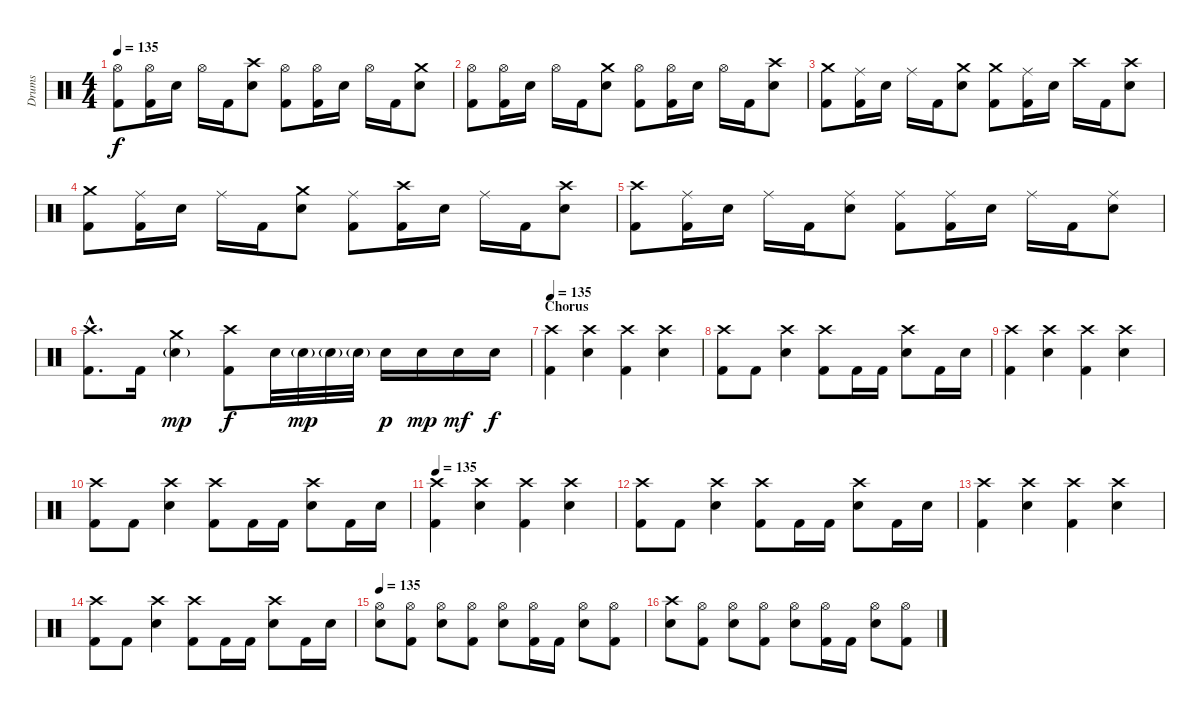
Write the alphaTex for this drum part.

\track ("Drums" "Drums") {instrument percussion}
\staff {score}
\articulation defaults
\ts (4 4)
\tempo 135
\clef neutral
\ks c
("Hi-Hat (open)" "Kick (hit) 2").8{dy f} ("Hi-Hat (open)" "Kick (hit) 2").16 "Electric Snare (hit)".16 "Hi-Hat (open)".16 "Kick (hit) 2".16 ("Crash high (hit)" "Electric Snare (hit)").8 ("Hi-Hat (open)" "Kick (hit) 2").8 ("Hi-Hat (open)" "Kick (hit) 2").16 "Electric Snare (hit)".16 "Hi-Hat (open)".16 "Kick (hit) 2".16 ("Crash medium (hit)" "Electric Snare (hit)").8 |
("Hi-Hat (open)" "Kick (hit) 2").8 ("Hi-Hat (open)" "Kick (hit) 2").16 "Electric Snare (hit)".16 "Hi-Hat (open)".16 "Kick (hit) 2".16 ("Crash medium (hit)" "Electric Snare (hit)").8 ("Hi-Hat (open)" "Kick (hit) 2").8 ("Hi-Hat (open)" "Kick (hit) 2").16 "Electric Snare (hit)".16 "Hi-Hat (open)".16 "Kick (hit) 2".16 ("Crash high (hit)" "Electric Snare (hit)").8 |
("Crash medium (hit)" "Kick (hit) 2").8 ("Ride (middle)" "Kick (hit) 2").16 "Electric Snare (hit)".16 "Ride (middle)".16 "Kick (hit) 2".16 ("Crash medium (hit)" "Electric Snare (hit)").8 ("Crash medium (hit)" "Kick (hit) 2").8 ("Ride (middle)" "Kick (hit) 2").16 "Electric Snare (hit)".16 "Crash high (hit)".16 "Kick (hit) 2".16 ("Crash high (hit)" "Electric Snare (hit)").8 |
("Crash medium (hit)" "Kick (hit) 2").8 ("Ride (middle)" "Kick (hit) 2").16 "Electric Snare (hit)".16 "Ride (middle)".16 "Kick (hit) 2".16 ("Crash medium (hit)" "Electric Snare (hit)").8 ("Ride (middle)" "Kick (hit) 2").8 ("Crash high (hit)" "Kick (hit) 2").16 "Electric Snare (hit)".16 "Ride (middle)".16 "Kick (hit) 2".16 ("Crash high (hit)" "Electric Snare (hit)").8 |
("Crash high (hit)" "Kick (hit) 2").8 ("Ride (middle)" "Kick (hit) 2").16 "Electric Snare (hit)".16 "Ride (middle)".16 "Kick (hit) 2".16 ("Ride (middle)" "Electric Snare (hit)").8 ("Ride (middle)" "Kick (hit) 2").8 ("Ride (middle)" "Kick (hit) 2").16 "Electric Snare (hit)".16 "Ride (middle)".16 "Kick (hit) 2".16 ("Ride (middle)" "Electric Snare (hit)").8 |
("Crash high (hit)"{hac} "Kick (hit) 2"{hac}).8{d} "Kick (hit) 2".16 ("Crash medium (hit)" "Electric Snare (hit)"{g}).4{dy mp} ("Crash high (hit)" "Kick (hit) 2").8{dy f} "Electric Snare (hit)".32 "Electric Snare (hit)"{g}.32{dy mp} "Electric Snare (hit)"{g}.32 "Electric Snare (hit)"{g}.32 "Electric Snare (hit)".16{dy p} "Electric Snare (hit)".16{dy mp} "Electric Snare (hit)".16{dy mf} "Electric Snare (hit)".16{dy f} |
\section ("" "Chorus")
\tempo 135
("Crash high (hit)" "Kick (hit) 2").4 ("Crash high (hit)" "Electric Snare (hit)").4 ("Crash high (hit)" "Kick (hit) 2").4 ("Crash high (hit)" "Electric Snare (hit)").4 |
("Crash high (hit)" "Kick (hit) 2").8 "Kick (hit) 2".8 ("Crash high (hit)" "Electric Snare (hit)").4 ("Crash high (hit)" "Kick (hit) 2").8 "Kick (hit) 2".16 "Kick (hit) 2".16 ("Crash high (hit)" "Electric Snare (hit)").8 "Kick (hit) 2".16 "Electric Snare (hit)".16 |
("Crash high (hit)" "Kick (hit) 2").4 ("Crash high (hit)" "Electric Snare (hit)").4 ("Crash high (hit)" "Kick (hit) 2").4 ("Crash high (hit)" "Electric Snare (hit)").4 |
("Crash high (hit)" "Kick (hit) 2").8 "Kick (hit) 2".8 ("Crash high (hit)" "Electric Snare (hit)").4 ("Crash high (hit)" "Kick (hit) 2").8 "Kick (hit) 2".16 "Kick (hit) 2".16 ("Crash high (hit)" "Electric Snare (hit)").8 "Kick (hit) 2".16 "Electric Snare (hit)".16 |
\tempo 135
("Crash high (hit)" "Kick (hit) 2").4 ("Crash high (hit)" "Electric Snare (hit)").4 ("Crash high (hit)" "Kick (hit) 2").4 ("Crash high (hit)" "Electric Snare (hit)").4 |
("Crash high (hit)" "Kick (hit) 2").8 "Kick (hit) 2".8 ("Crash high (hit)" "Electric Snare (hit)").4 ("Crash high (hit)" "Kick (hit) 2").8 "Kick (hit) 2".16 "Kick (hit) 2".16 ("Crash high (hit)" "Electric Snare (hit)").8 "Kick (hit) 2".16 "Electric Snare (hit)".16 |
("Crash high (hit)" "Kick (hit) 2").4 ("Crash high (hit)" "Electric Snare (hit)").4 ("Crash high (hit)" "Kick (hit) 2").4 ("Crash high (hit)" "Electric Snare (hit)").4 |
("Crash high (hit)" "Kick (hit) 2").8 "Kick (hit) 2".8 ("Crash high (hit)" "Electric Snare (hit)").4 ("Crash high (hit)" "Kick (hit) 2").8 "Kick (hit) 2".16 "Kick (hit) 2".16 ("Crash high (hit)" "Electric Snare (hit)").8 "Kick (hit) 2".16 "Electric Snare (hit)".16 |
\tempo 135
("Hi-Hat (open)" "Electric Snare (hit)").8 ("Hi-Hat (open)" "Kick (hit) 2").8 ("Hi-Hat (open)" "Electric Snare (hit)").8 ("Hi-Hat (open)" "Kick (hit) 2").8 ("Hi-Hat (open)" "Electric Snare (hit)").8 ("Hi-Hat (open)" "Kick (hit) 2").16 "Kick (hit) 2".16 ("Hi-Hat (open)" "Electric Snare (hit)").8 ("Hi-Hat (open)" "Kick (hit) 2").8 |
("Crash high (hit)" "Electric Snare (hit)").8 ("Hi-Hat (open)" "Kick (hit) 2").8 ("Hi-Hat (open)" "Electric Snare (hit)").8 ("Hi-Hat (open)" "Kick (hit) 2").8 ("Hi-Hat (open)" "Electric Snare (hit)").8 ("Hi-Hat (open)" "Kick (hit) 2").16 "Kick (hit) 2".16 ("Hi-Hat (open)" "Electric Snare (hit)").8 ("Hi-Hat (open)" "Kick (hit) 2").8
